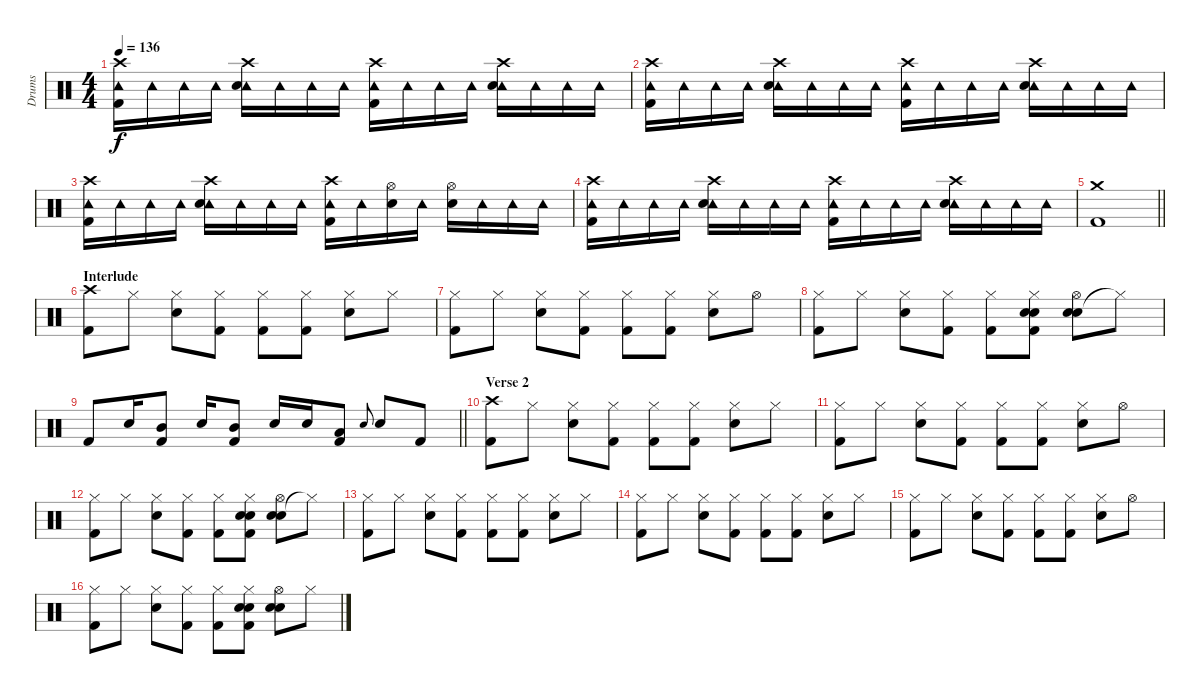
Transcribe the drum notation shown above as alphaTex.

\track ("Drums" "Drums") {instrument percussion}
\staff {score}
\articulation defaults
\ts (4 4)
\tempo 136
\clef neutral
\ks c
("Crash high (hit)" "Tambourine (hit)" "Kick (hit) 2").16{dy f} "Tambourine (hit)".16 "Tambourine (hit)".16 "Tambourine (hit)".16 ("Crash high (hit)" "Tambourine (hit)" "Electric Snare (hit)").16 "Tambourine (hit)".16 "Tambourine (hit)".16 "Tambourine (hit)".16 ("Crash high (hit)" "Tambourine (hit)" "Kick (hit) 2").16 "Tambourine (hit)".16 "Tambourine (hit)".16 "Tambourine (hit)".16 ("Crash high (hit)" "Tambourine (hit)" "Electric Snare (hit)").16 "Tambourine (hit)".16 "Tambourine (hit)".16 "Tambourine (hit)".16 |
("Crash high (hit)" "Tambourine (hit)" "Kick (hit) 2").16 "Tambourine (hit)".16 "Tambourine (hit)".16 "Tambourine (hit)".16 ("Crash high (hit)" "Tambourine (hit)" "Electric Snare (hit)").16 "Tambourine (hit)".16 "Tambourine (hit)".16 "Tambourine (hit)".16 ("Crash high (hit)" "Tambourine (hit)" "Kick (hit) 2").16 "Tambourine (hit)".16 "Tambourine (hit)".16 "Tambourine (hit)".16 ("Crash high (hit)" "Tambourine (hit)" "Electric Snare (hit)").16 "Tambourine (hit)".16 "Tambourine (hit)".16 "Tambourine (hit)".16 |
("Crash high (hit)" "Tambourine (hit)" "Kick (hit) 2").16 "Tambourine (hit)".16 "Tambourine (hit)".16 "Tambourine (hit)".16 ("Crash high (hit)" "Tambourine (hit)" "Electric Snare (hit)").16 "Tambourine (hit)".16 "Tambourine (hit)".16 "Tambourine (hit)".16 ("Crash high (hit)" "Tambourine (hit)" "Kick (hit) 2").16 "Tambourine (hit)".16 ("Hi-Hat (open)" "Electric Snare (hit)").16 "Tambourine (hit)".16 ("Hi-Hat (open)" "Electric Snare (hit)").16 "Tambourine (hit)".16 "Tambourine (hit)".16 "Tambourine (hit)".16 |
("Crash high (hit)" "Tambourine (hit)" "Kick (hit) 2").16 "Tambourine (hit)".16 "Tambourine (hit)".16 "Tambourine (hit)".16 ("Crash high (hit)" "Tambourine (hit)" "Electric Snare (hit)").16 "Tambourine (hit)".16 "Tambourine (hit)".16 "Tambourine (hit)".16 ("Crash high (hit)" "Tambourine (hit)" "Kick (hit) 2").16 "Tambourine (hit)".16 "Tambourine (hit)".16 "Tambourine (hit)".16 ("Crash high (hit)" "Tambourine (hit)" "Electric Snare (hit)").16 "Tambourine (hit)".16 "Tambourine (hit)".16 "Tambourine (hit)".16 |
\barLineRight lightlight
("Crash medium (hit)" "Kick (hit) 2").1 |
\section ("" "Interlude")
("Crash high (hit)" "Kick (hit) 2").8 "Hi-Hat (closed)".8 ("Hi-Hat (closed)" "Electric Snare (hit)").8 ("Hi-Hat (closed)" "Kick (hit) 2").8 ("Hi-Hat (closed)" "Kick (hit) 2").8 ("Hi-Hat (closed)" "Kick (hit) 2").8 ("Hi-Hat (closed)" "Electric Snare (hit)").8 "Hi-Hat (closed)".8 |
("Hi-Hat (closed)" "Kick (hit) 2").8 "Hi-Hat (closed)".8 ("Hi-Hat (closed)" "Electric Snare (hit)").8 ("Hi-Hat (closed)" "Kick (hit) 2").8 ("Hi-Hat (closed)" "Kick (hit) 2").8 ("Hi-Hat (closed)" "Kick (hit) 2").8 ("Hi-Hat (closed)" "Electric Snare (hit)").8 "Hi-Hat (open)".8 |
("Hi-Hat (closed)" "Kick (hit) 2").8 "Hi-Hat (closed)".8 ("Hi-Hat (closed)" "Electric Snare (hit)").8 ("Hi-Hat (closed)" "Kick (hit) 2").8 ("Hi-Hat (closed)" "Kick (hit) 2").8 ("Hand Clap (hit)" "Hi-Hat (closed)" "Electric Snare (hit)" "Kick (hit) 2").8 ("Hand Clap (hit)" "Hi-Hat (open)" "Electric Snare (hit)").8 "Hi-Hat (closed)"{t}.8 |
\barLineRight lightlight "Kick (hit) 2".8 "Electric Snare (hit)".16
("Mid Tom (hit)" "Kick (hit) 2").8 "Electric Snare (hit)".16 ("Mid Tom (hit)" "Kick (hit) 2").8 "Electric Snare (hit)".16 "Electric Snare (hit)".16 ("Low Tom (hit)" "Kick (hit) 2").8 "Electric Snare (hit)".8{gr onbeat} "Electric Snare (hit)".8 "Kick (hit) 2".8 |
\section ("" "Verse 2")
("Crash high (hit)" "Kick (hit) 2").8 "Hi-Hat (closed)".8 ("Hi-Hat (closed)" "Electric Snare (hit)").8 ("Hi-Hat (closed)" "Kick (hit) 2").8 ("Hi-Hat (closed)" "Kick (hit) 2").8 ("Hi-Hat (closed)" "Kick (hit) 2").8 ("Hi-Hat (closed)" "Electric Snare (hit)").8 "Hi-Hat (closed)".8 |
("Hi-Hat (closed)" "Kick (hit) 2").8 "Hi-Hat (closed)".8 ("Hi-Hat (closed)" "Electric Snare (hit)").8 ("Hi-Hat (closed)" "Kick (hit) 2").8 ("Hi-Hat (closed)" "Kick (hit) 2").8 ("Hi-Hat (closed)" "Kick (hit) 2").8 ("Hi-Hat (closed)" "Electric Snare (hit)").8 "Hi-Hat (open)".8 |
("Hi-Hat (closed)" "Kick (hit) 2").8 "Hi-Hat (closed)".8 ("Hi-Hat (closed)" "Electric Snare (hit)").8 ("Hi-Hat (closed)" "Kick (hit) 2").8 ("Hi-Hat (closed)" "Kick (hit) 2").8 ("Hand Clap (hit)" "Hi-Hat (closed)" "Electric Snare (hit)" "Kick (hit) 2").8 ("Hand Clap (hit)" "Hi-Hat (open)" "Electric Snare (hit)").8 "Hi-Hat (closed)"{t}.8 |
("Hi-Hat (closed)" "Kick (hit) 2").8 "Hi-Hat (closed)".8 ("Hi-Hat (closed)" "Electric Snare (hit)").8 ("Hi-Hat (closed)" "Kick (hit) 2").8 ("Hi-Hat (closed)" "Kick (hit) 2").8 ("Hi-Hat (closed)" "Kick (hit) 2").8 ("Hi-Hat (closed)" "Electric Snare (hit)").8 "Hi-Hat (closed)".8 |
("Hi-Hat (closed)" "Kick (hit) 2").8 "Hi-Hat (closed)".8 ("Hi-Hat (closed)" "Electric Snare (hit)").8 ("Hi-Hat (closed)" "Kick (hit) 2").8 ("Hi-Hat (closed)" "Kick (hit) 2").8 ("Hi-Hat (closed)" "Kick (hit) 2").8 ("Hi-Hat (closed)" "Electric Snare (hit)").8 "Hi-Hat (closed)".8 |
("Hi-Hat (closed)" "Kick (hit) 2").8 "Hi-Hat (closed)".8 ("Hi-Hat (closed)" "Electric Snare (hit)").8 ("Hi-Hat (closed)" "Kick (hit) 2").8 ("Hi-Hat (closed)" "Kick (hit) 2").8 ("Hi-Hat (closed)" "Kick (hit) 2").8 ("Hi-Hat (closed)" "Electric Snare (hit)").8 "Hi-Hat (open)".8 |
("Hi-Hat (closed)" "Kick (hit) 2").8 "Hi-Hat (closed)".8 ("Hi-Hat (closed)" "Electric Snare (hit)").8 ("Hi-Hat (closed)" "Kick (hit) 2").8 ("Hi-Hat (closed)" "Kick (hit) 2").8 ("Hand Clap (hit)" "Hi-Hat (closed)" "Electric Snare (hit)" "Kick (hit) 2").8 ("Hand Clap (hit)" "Hi-Hat (open)" "Electric Snare (hit)").8 "Hi-Hat (closed)".8
